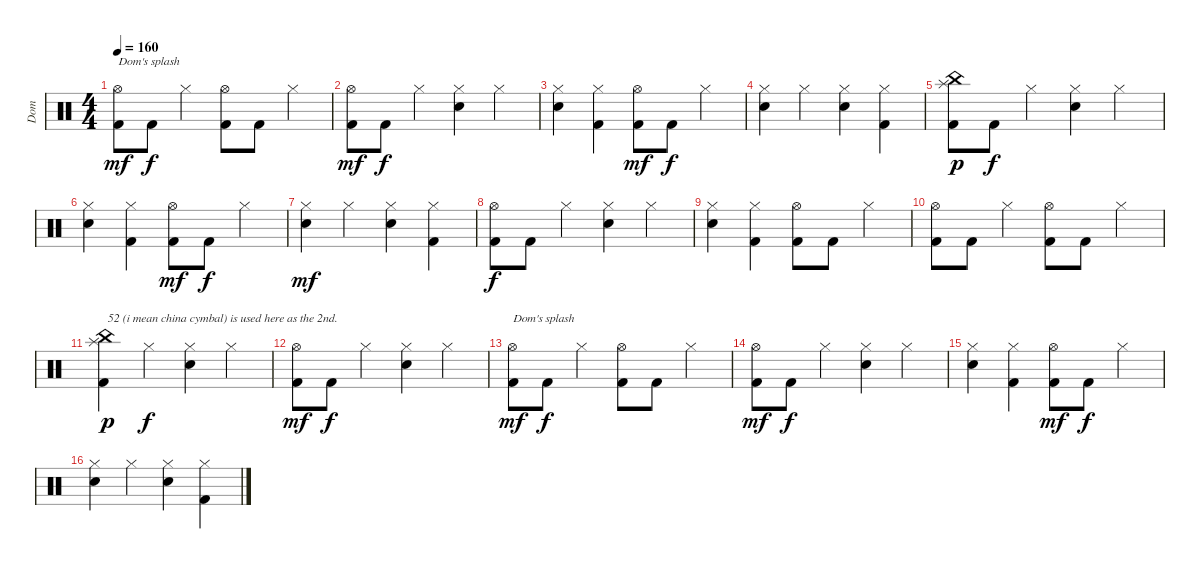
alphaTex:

\track ("Dom" "Dom") {instrument percussion}
\staff {score}
\articulation defaults
\ts (4 4)
\tempo 160
\clef neutral
\ks c
("Hi-Hat (open)" "Kick (hit) 2").8{txt "Dom's splash" dy mf} "Kick (hit) 2".8{dy f} "Hi-Hat (closed)".4 ("Hi-Hat (open)" "Kick (hit) 2").8 "Kick (hit) 2".8 "Hi-Hat (closed)".4 |
("Hi-Hat (open)" "Kick (hit) 2").8{dy mf} "Kick (hit) 2".8{dy f} "Hi-Hat (closed)".4 ("Hi-Hat (closed)" "Snare (hit) 2").4 "Hi-Hat (closed)".4 |
("Hi-Hat (closed)" "Snare (hit) 2").4 ("Hi-Hat (closed)" "Kick (hit) 2").4 ("Hi-Hat (open)" "Kick (hit) 2").8{dy mf} "Kick (hit) 2".8{dy f} "Hi-Hat (closed)".4 |
("Hi-Hat (closed)" "Snare (hit) 2").4 "Hi-Hat (closed)".4 ("Hi-Hat (closed)" "Snare (hit) 2").4 ("Hi-Hat (closed)" "Kick (hit) 2").4 |
("Splash (hit)" "Kick (hit) 2" "China (hit)").8{dy p} "Kick (hit) 2".8{dy f} "Hi-Hat (closed)".4 ("Hi-Hat (closed)" "Snare (hit) 2").4 "Hi-Hat (closed)".4 |
("Hi-Hat (closed)" "Snare (hit) 2").4 ("Hi-Hat (closed)" "Kick (hit) 2").4 ("Hi-Hat (open)" "Kick (hit) 2").8{dy mf} "Kick (hit) 2".8{dy f} "Hi-Hat (closed)".4 |
("Hi-Hat (closed)" "Snare (hit) 2").4{dy mf} "Hi-Hat (closed)".4 ("Hi-Hat (closed)" "Snare (hit) 2").4 ("Hi-Hat (closed)" "Kick (hit) 2").4 |
("Hi-Hat (open)" "Kick (hit) 2").8{dy f} "Kick (hit) 2".8 "Hi-Hat (closed)".4 ("Hi-Hat (closed)" "Snare (hit) 2").4 "Hi-Hat (closed)".4 |
("Hi-Hat (closed)" "Snare (hit) 2").4 ("Hi-Hat (closed)" "Kick (hit) 2").4 ("Hi-Hat (open)" "Kick (hit) 2").8 "Kick (hit) 2".8 "Hi-Hat (closed)".4 |
("Hi-Hat (open)" "Kick (hit) 2").8 "Kick (hit) 2".8 "Hi-Hat (closed)".4 ("Hi-Hat (open)" "Kick (hit) 2").8 "Kick (hit) 2".8 "Hi-Hat (closed)".4 |
("Splash (hit)" "Kick (hit) 2" "China (hit)").4{txt "52 (i mean china cymbal) is used here as the 2nd." dy p} "Hi-Hat (closed)".4{dy f} ("Hi-Hat (closed)" "Snare (hit) 2").4 "Hi-Hat (closed)".4 |
("Hi-Hat (open)" "Kick (hit) 2").8{dy mf} "Kick (hit) 2".8{dy f} "Hi-Hat (closed)".4 ("Hi-Hat (closed)" "Snare (hit) 2").4 "Hi-Hat (closed)".4 |
("Hi-Hat (open)" "Kick (hit) 2").8{txt "Dom's splash" dy mf} "Kick (hit) 2".8{dy f} "Hi-Hat (closed)".4 ("Hi-Hat (open)" "Kick (hit) 2").8 "Kick (hit) 2".8 "Hi-Hat (closed)".4 |
("Hi-Hat (open)" "Kick (hit) 2").8{dy mf} "Kick (hit) 2".8{dy f} "Hi-Hat (closed)".4 ("Hi-Hat (closed)" "Snare (hit) 2").4 "Hi-Hat (closed)".4 |
("Hi-Hat (closed)" "Snare (hit) 2").4 ("Hi-Hat (closed)" "Kick (hit) 2").4 ("Hi-Hat (open)" "Kick (hit) 2").8{dy mf} "Kick (hit) 2".8{dy f} "Hi-Hat (closed)".4 |
("Hi-Hat (closed)" "Snare (hit) 2").4 "Hi-Hat (closed)".4 ("Hi-Hat (closed)" "Snare (hit) 2").4 ("Hi-Hat (closed)" "Kick (hit) 2").4
